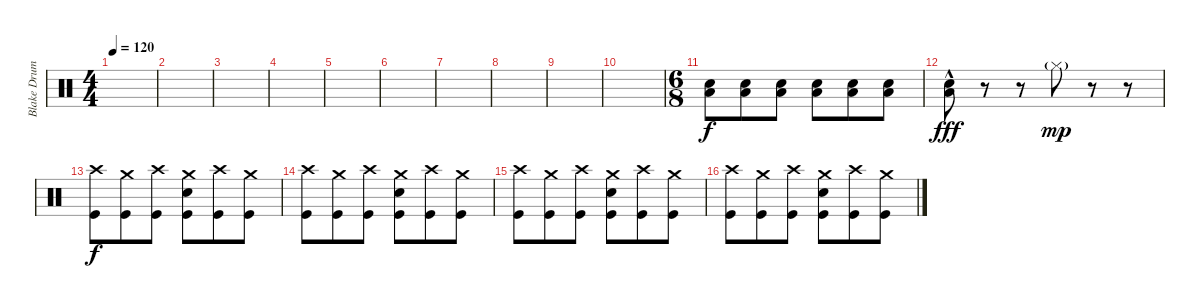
\track ("Blake Drums" "Blake Drum") {instrument percussion}
\staff {score}
\articulation defaults
\ts (4 4)
\tempo 120
\clef neutral
\ks c
|
|
|
|
|
|
|
|
|
|
\ts (6 8)
("Snare (hit) 2" "Low Tom (hit)").8 ("Snare (hit) 2" "Low Tom (hit)").8{volume 5} ("Snare (hit) 2" "Low Tom (hit)").8{volume 6} ("Snare (hit) 2" "Low Tom (hit)").8{volume 7} ("Snare (hit) 2" "Low Tom (hit)").8{volume 8} ("Snare (hit) 2" "Low Tom (hit)").8{volume 10} |
("Snare (hit) 2"{hac} "Low Tom (hit)").8{dy fff} r.8 r.8 "Hi-Hat (closed)"{g}.8{dy mp} r.8 r.8 |
("Crash high (hit)" "Kick (hit)").8{dy f} ("Crash medium (hit)" "Kick (hit)").8 ("Crash high (hit)" "Kick (hit)").8 ("Crash medium (hit)" "Snare (hit) 2" "Kick (hit)").8 ("Crash high (hit)" "Kick (hit)").8 ("Crash medium (hit)" "Kick (hit)").8 |
("Crash high (hit)" "Kick (hit)").8 ("Crash medium (hit)" "Kick (hit)").8 ("Crash high (hit)" "Kick (hit)").8 ("Crash medium (hit)" "Snare (hit) 2" "Kick (hit)").8 ("Crash high (hit)" "Kick (hit)").8 ("Crash medium (hit)" "Kick (hit)").8 |
("Crash high (hit)" "Kick (hit)").8 ("Crash medium (hit)" "Kick (hit)").8 ("Crash high (hit)" "Kick (hit)").8 ("Crash medium (hit)" "Snare (hit) 2" "Kick (hit)").8 ("Crash high (hit)" "Kick (hit)").8 ("Crash medium (hit)" "Kick (hit)").8 |
("Crash high (hit)" "Kick (hit)").8 ("Crash medium (hit)" "Kick (hit)").8 ("Crash high (hit)" "Kick (hit)").8 ("Crash medium (hit)" "Snare (hit) 2" "Kick (hit)").8 ("Crash high (hit)" "Kick (hit)").8 ("Crash medium (hit)" "Kick (hit)").8
